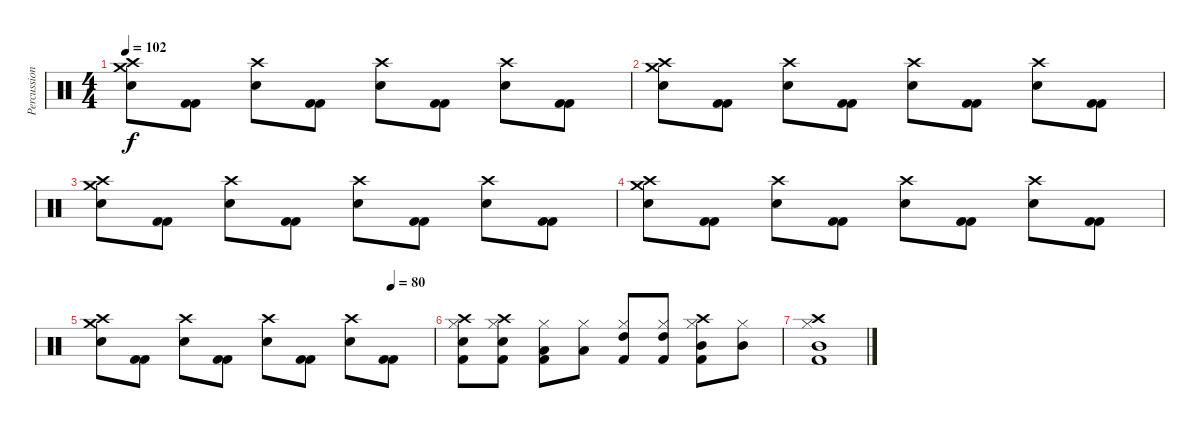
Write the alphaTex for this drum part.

\track ("Percussion" "Percussion") {instrument percussion}
\staff {score}
\articulation defaults
\ts (4 4)
\tempo 102
\clef neutral
\ks c
("Snare (hit) 2" "Crash high (hit)" "Crash medium (hit)").8{dy f} ("Kick (hit) 2" "Kick (hit) 2").8 ("Snare (hit) 2" "Crash high (hit)").8 ("Kick (hit) 2" "Kick (hit) 2").8 ("Snare (hit) 2" "Crash high (hit)").8 ("Kick (hit) 2" "Kick (hit) 2").8 ("Snare (hit) 2" "Crash high (hit)").8 ("Kick (hit) 2" "Kick (hit) 2").8 |
("Snare (hit) 2" "Crash high (hit)" "Crash medium (hit)").8 ("Kick (hit) 2" "Kick (hit) 2").8 ("Snare (hit) 2" "Crash high (hit)").8 ("Kick (hit) 2" "Kick (hit) 2").8 ("Snare (hit) 2" "Crash high (hit)").8 ("Kick (hit) 2" "Kick (hit) 2").8 ("Snare (hit) 2" "Crash high (hit)").8 ("Kick (hit) 2" "Kick (hit) 2").8 |
("Snare (hit) 2" "Crash high (hit)" "Crash medium (hit)").8 ("Kick (hit) 2" "Kick (hit) 2").8 ("Snare (hit) 2" "Crash high (hit)").8 ("Kick (hit) 2" "Kick (hit) 2").8 ("Snare (hit) 2" "Crash high (hit)").8 ("Kick (hit) 2" "Kick (hit) 2").8 ("Snare (hit) 2" "Crash high (hit)").8 ("Kick (hit) 2" "Kick (hit) 2").8 |
("Snare (hit) 2" "Crash high (hit)" "Crash medium (hit)").8 ("Kick (hit) 2" "Kick (hit) 2").8 ("Snare (hit) 2" "Crash high (hit)").8 ("Kick (hit) 2" "Kick (hit) 2").8 ("Snare (hit) 2" "Crash high (hit)").8 ("Kick (hit) 2" "Kick (hit) 2").8 ("Snare (hit) 2" "Crash high (hit)").8 ("Kick (hit) 2" "Kick (hit) 2").8 |
\tempo (80 0.875)
("Snare (hit) 2" "Crash high (hit)" "Crash medium (hit)").8 ("Kick (hit) 2" "Kick (hit) 2").8 ("Snare (hit) 2" "Crash high (hit)").8 ("Kick (hit) 2" "Kick (hit) 2").8 ("Snare (hit) 2" "Crash high (hit)").8 ("Kick (hit) 2" "Kick (hit) 2").8 ("Snare (hit) 2" "Crash high (hit)").8 ("Kick (hit) 2" "Kick (hit) 2").8 |
("Kick (hit) 2" "Snare (hit) 2" "Hi-Hat (closed)" "Crash high (hit)").8 ("Kick (hit) 2" "Snare (hit) 2" "Hi-Hat (closed)" "Crash high (hit)").8 ("Kick (hit) 2" "Low Floor Tom (hit)" "Hi-Hat (closed)").8 ("Low Floor Tom (hit)" "Hi-Hat (closed)").8 ("Kick (hit) 2" "High Tom (hit)" "Hi-Hat (closed)").8 ("Kick (hit) 2" "High Tom (hit)" "Hi-Hat (closed)").8 ("Kick (hit) 2" "Mid Tom (hit)" "Hi-Hat (closed)" "Crash high (hit)").8 ("Mid Tom (hit)" "Hi-Hat (closed)").8 |
("Kick (hit) 2" "Mid Tom (hit)" "Hi-Hat (closed)" "Crash high (hit)").1
